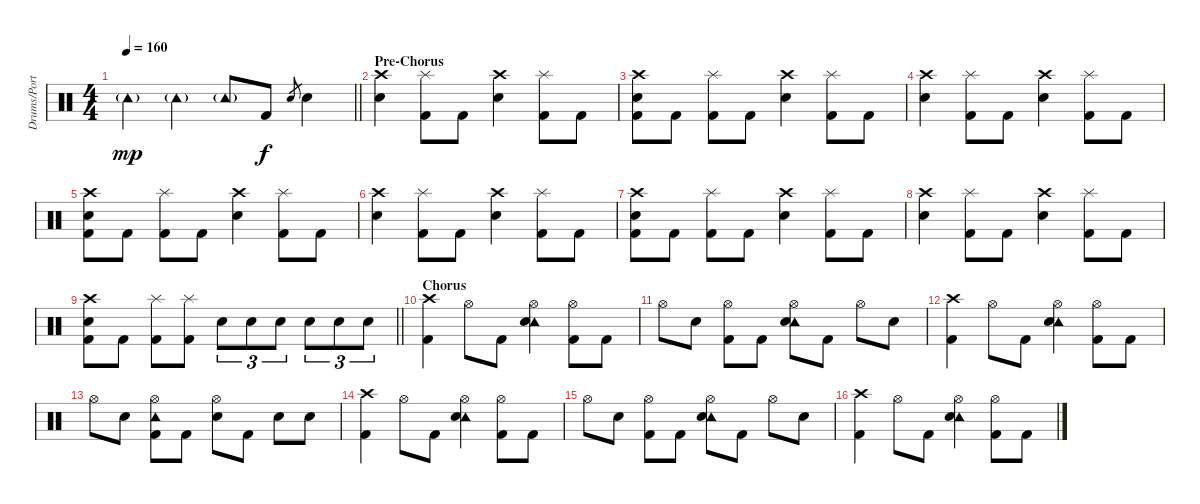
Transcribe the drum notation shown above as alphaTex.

\track ("Drums/Portnoy" "Drums/Port") {instrument percussion}
\staff {score}
\articulation defaults
\ts (4 4)
\tempo 160
\clef neutral
\barLineRight lightlight
\ks c "Tambourine (hit)"{g}.4{dy mp} "Tambourine (hit)"{g}.4 "Tambourine (hit)"{g}.8 "Kick (hit) 2".8{dy f} "Electric Snare (hit)".8{gr} "Electric Snare (hit)".4
|
\section ("" "Pre-Chorus")
("Crash high (hit)" "Electric Snare (hit)").4 ("Splash (hit)" "Kick (hit) 2").8 "Kick (hit) 2".8 ("Crash high (hit)" "Electric Snare (hit)").4 ("Splash (hit)" "Kick (hit) 2").8 "Kick (hit) 2".8 |
("Crash high (hit)" "Electric Snare (hit)" "Kick (hit) 2").8 "Kick (hit) 2".8 ("Splash (hit)" "Kick (hit) 2").8 "Kick (hit) 2".8 ("Crash high (hit)" "Electric Snare (hit)").4 ("Splash (hit)" "Kick (hit) 2").8 "Kick (hit) 2".8 |
("Crash high (hit)" "Electric Snare (hit)").4 ("Splash (hit)" "Kick (hit) 2").8 "Kick (hit) 2".8 ("Crash high (hit)" "Electric Snare (hit)").4 ("Splash (hit)" "Kick (hit) 2").8 "Kick (hit) 2".8 |
("Crash high (hit)" "Electric Snare (hit)" "Kick (hit) 2").8 "Kick (hit) 2".8 ("Splash (hit)" "Kick (hit) 2").8 "Kick (hit) 2".8 ("Crash high (hit)" "Electric Snare (hit)").4 ("Splash (hit)" "Kick (hit) 2").8 "Kick (hit) 2".8 |
("Crash high (hit)" "Electric Snare (hit)").4 ("Splash (hit)" "Kick (hit) 2").8 "Kick (hit) 2".8 ("Crash high (hit)" "Electric Snare (hit)").4 ("Splash (hit)" "Kick (hit) 2").8 "Kick (hit) 2".8 |
("Crash high (hit)" "Electric Snare (hit)" "Kick (hit) 2").8 "Kick (hit) 2".8 ("Splash (hit)" "Kick (hit) 2").8 "Kick (hit) 2".8 ("Crash high (hit)" "Electric Snare (hit)").4 ("Splash (hit)" "Kick (hit) 2").8 "Kick (hit) 2".8 |
("Crash high (hit)" "Electric Snare (hit)").4 ("Splash (hit)" "Kick (hit) 2").8 "Kick (hit) 2".8 ("Crash high (hit)" "Electric Snare (hit)").4 ("Splash (hit)" "Kick (hit) 2").8 "Kick (hit) 2".8 |
\barLineRight lightlight
("Crash high (hit)" "Electric Snare (hit)" "Kick (hit) 2").8 "Kick (hit) 2".8 ("Splash (hit)" "Kick (hit) 2").8 ("Splash (hit)" "Kick (hit) 2").8 "Electric Snare (hit)".8{tu (3 2)} "Electric Snare (hit)".8{tu (3 2)} "Electric Snare (hit)".8{tu (3 2)} "Electric Snare (hit)".8{tu (3 2)} "Electric Snare (hit)".8{tu (3 2)} "Electric Snare (hit)".8{tu (3 2)} |
\section ("" "Chorus")
("Crash high (hit)" "Kick (hit) 2").4 "Hi-Hat (open)".8 "Kick (hit) 2".8 ("Tambourine (hit)" "Hi-Hat (open)" "Electric Snare (hit)").4 ("Hi-Hat (open)" "Kick (hit) 2").8 "Kick (hit) 2".8 |
"Hi-Hat (open)".8 "Electric Snare (hit)".8 ("Hi-Hat (open)" "Kick (hit) 2").8 "Kick (hit) 2".8 ("Tambourine (hit)" "Hi-Hat (open)" "Electric Snare (hit)").8 "Kick (hit) 2".8 "Hi-Hat (open)".8 "Electric Snare (hit)".8 |
("Crash high (hit)" "Kick (hit) 2").4 "Hi-Hat (open)".8 "Kick (hit) 2".8 ("Tambourine (hit)" "Hi-Hat (open)" "Electric Snare (hit)").4 ("Hi-Hat (open)" "Kick (hit) 2").8 "Kick (hit) 2".8 |
"Hi-Hat (open)".8 "Electric Snare (hit)".8 ("Tambourine (hit)" "Hi-Hat (open)" "Kick (hit) 2").8 "Kick (hit) 2".8 ("Hi-Hat (open)" "Electric Snare (hit)").8 "Kick (hit) 2".8 "Electric Snare (hit)".8 "Electric Snare (hit)".8 |
("Crash high (hit)" "Kick (hit) 2").4 "Hi-Hat (open)".8 "Kick (hit) 2".8 ("Tambourine (hit)" "Hi-Hat (open)" "Electric Snare (hit)").4 ("Hi-Hat (open)" "Kick (hit) 2").8 "Kick (hit) 2".8 |
"Hi-Hat (open)".8 "Electric Snare (hit)".8 ("Hi-Hat (open)" "Kick (hit) 2").8 "Kick (hit) 2".8 ("Tambourine (hit)" "Hi-Hat (open)" "Electric Snare (hit)").8 "Kick (hit) 2".8 "Hi-Hat (open)".8 "Electric Snare (hit)".8 |
("Crash high (hit)" "Kick (hit) 2").4 "Hi-Hat (open)".8 "Kick (hit) 2".8 ("Tambourine (hit)" "Hi-Hat (open)" "Electric Snare (hit)").4 ("Hi-Hat (open)" "Kick (hit) 2").8 "Kick (hit) 2".8
